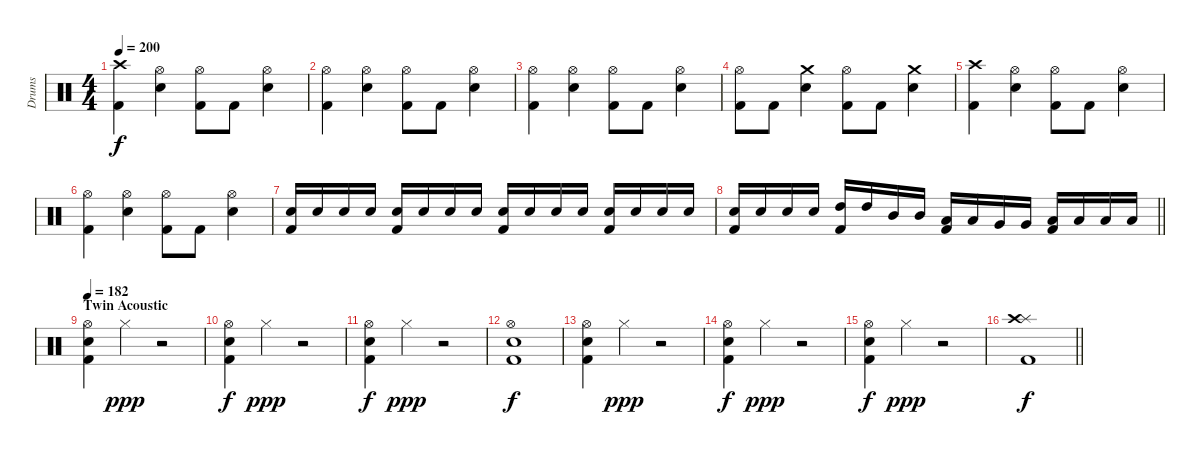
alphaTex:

\track ("Drums" "Drums") {instrument percussion}
\staff {score}
\articulation defaults
\ts (4 4)
\section ("" "")
\tempo 200
\clef neutral
\ks c
("Kick (hit) 2" "Crash high (hit)").4{dy f} ("Snare (hit) 2" "Hi-Hat (open)").4 ("Kick (hit) 2" "Hi-Hat (open)").8 "Kick (hit) 2".8 ("Snare (hit) 2" "Hi-Hat (open)").4 |
("Kick (hit) 2" "Hi-Hat (open)").4 ("Snare (hit) 2" "Hi-Hat (open)").4 ("Kick (hit) 2" "Hi-Hat (open)").8 "Kick (hit) 2".8 ("Snare (hit) 2" "Hi-Hat (open)").4 |
("Kick (hit) 2" "Hi-Hat (open)").4 ("Snare (hit) 2" "Hi-Hat (open)").4 ("Kick (hit) 2" "Hi-Hat (open)").8 "Kick (hit) 2".8 ("Snare (hit) 2" "Hi-Hat (open)").4 |
("Kick (hit) 2" "Hi-Hat (open)").8 "Kick (hit) 2".8 ("Snare (hit) 2" "Crash medium (hit)").4 ("Kick (hit) 2" "Hi-Hat (open)").8 "Kick (hit) 2".8 ("Snare (hit) 2" "Crash medium (hit)").4 |
("Kick (hit) 2" "Crash high (hit)").4 ("Snare (hit) 2" "Hi-Hat (open)").4 ("Kick (hit) 2" "Hi-Hat (open)").8 "Kick (hit) 2".8 ("Snare (hit) 2" "Hi-Hat (open)").4 |
("Kick (hit) 2" "Hi-Hat (open)").4 ("Snare (hit) 2" "Hi-Hat (open)").4 ("Kick (hit) 2" "Hi-Hat (open)").8 "Kick (hit) 2".8 ("Snare (hit) 2" "Hi-Hat (open)").4 |
("Kick (hit) 2" "Snare (hit) 2").16 "Snare (hit) 2".16 "Snare (hit) 2".16 "Snare (hit) 2".16 ("Kick (hit) 2" "Snare (hit) 2").16 "Snare (hit) 2".16 "Snare (hit) 2".16 "Snare (hit) 2".16 ("Kick (hit) 2" "Snare (hit) 2").16 "Snare (hit) 2".16 "Snare (hit) 2".16 "Snare (hit) 2".16 ("Kick (hit) 2" "Snare (hit) 2").16 "Snare (hit) 2".16 "Snare (hit) 2".16 "Snare (hit) 2".16 |
\barLineRight lightlight
("Kick (hit) 2" "Snare (hit) 2").16 "Snare (hit) 2".16 "Snare (hit) 2".16 "Snare (hit) 2".16 ("Kick (hit) 2" "High Tom (hit)").16 "High Tom (hit)".16 "Mid Tom (hit)".16 "Mid Tom (hit)".16 ("Kick (hit) 2" "Low Tom (hit)").16 "Low Tom (hit)".16 "Very Low Tom (hit)".16 "Very Low Tom (hit)".16 ("Kick (hit) 2" "Low Floor Tom (hit)").16 "Low Floor Tom (hit)".16 "Low Floor Tom (hit)".16 "Low Floor Tom (hit)".16 |
\section ("" "Twin Acoustic")
\tempo 182
("Kick (hit) 2" "Snare (hit) 2" "Hi-Hat (open)").4 "Hi-Hat (closed)".4{dy ppp} r.2 |
("Kick (hit) 2" "Snare (hit) 2" "Hi-Hat (open)").4{dy f} "Hi-Hat (closed)".4{dy ppp} r.2 |
("Kick (hit) 2" "Snare (hit) 2" "Hi-Hat (open)").4{dy f} "Hi-Hat (closed)".4{dy ppp} r.2 |
("Kick (hit) 2" "Snare (hit) 2" "Hi-Hat (open)").1{dy f} |
("Kick (hit) 2" "Snare (hit) 2" "Hi-Hat (open)").4 "Hi-Hat (closed)".4{dy ppp} r.2 |
("Kick (hit) 2" "Snare (hit) 2" "Hi-Hat (open)").4{dy f} "Hi-Hat (closed)".4{dy ppp} r.2 |
("Kick (hit) 2" "Snare (hit) 2" "Hi-Hat (open)").4{dy f} "Hi-Hat (closed)".4{dy ppp} r.2 |
\barLineRight lightlight
("Kick (hit) 2" "Splash (hit)" "Crash high (hit)").1{dy f}
